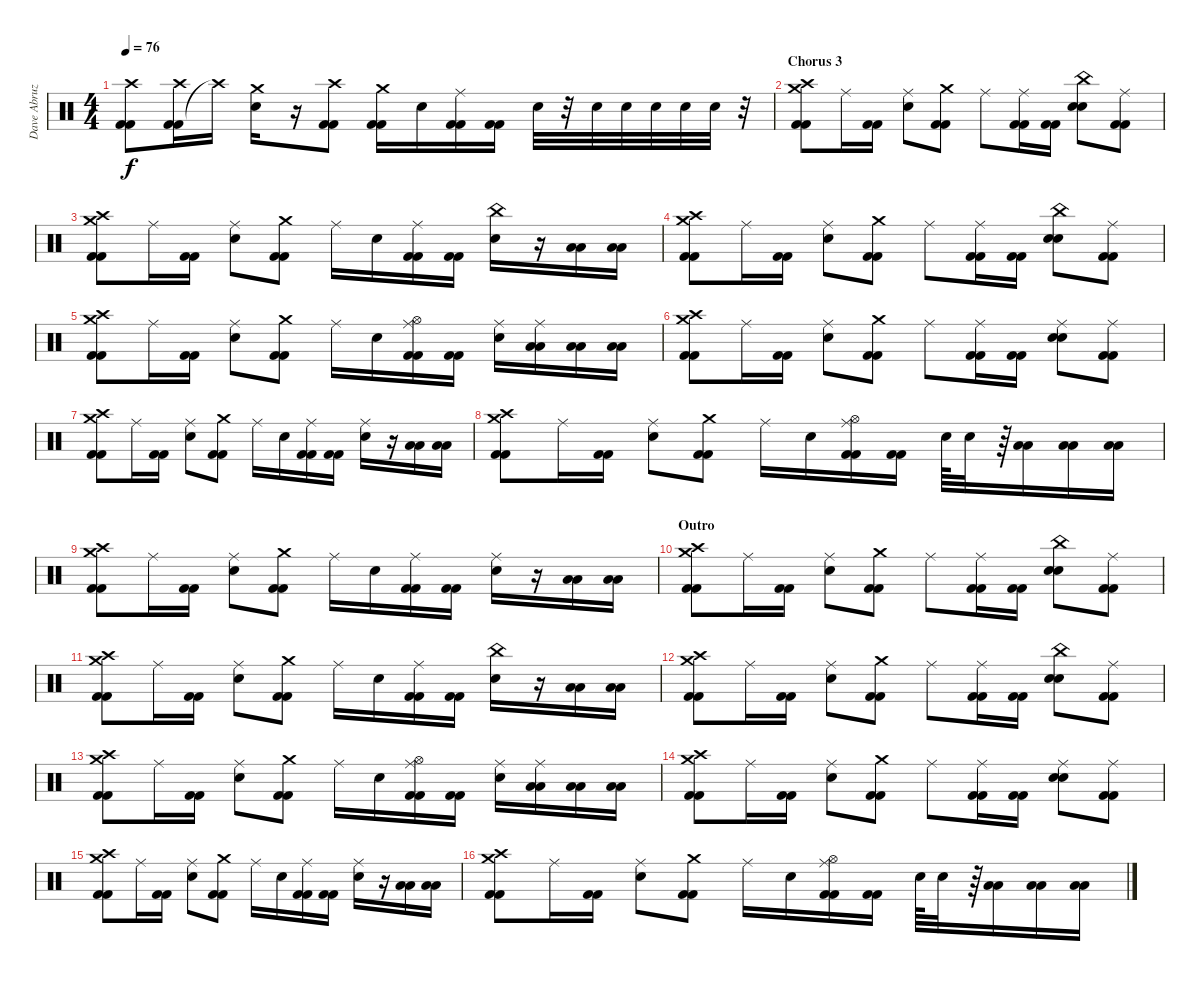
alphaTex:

\track ("Dave Abruzzese" "Dave Abruz") {instrument percussion}
\staff {score}
\articulation defaults
\ts (4 4)
\tempo 76
\clef neutral
\ks c
("Kick (hit) 2" "Kick (hit) 2" "Crash high (hit)").8{dy f} ("Kick (hit) 2" "Kick (hit) 2" "Crash high (hit)").16 "Crash high (hit)"{t}.16 ("Electric Snare (hit)" "Crash medium (hit)").16 r.16 ("Kick (hit) 2" "Kick (hit) 2" "Crash high (hit)").8 ("Kick (hit) 2" "Kick (hit) 2" "Crash medium (hit)").16 "Electric Snare (hit)".16 ("Kick (hit) 2" "Kick (hit) 2" "Ride (middle)").16 ("Kick (hit) 2" "Kick (hit) 2").16 "Electric Snare (hit)".32 r.32 "Electric Snare (hit)".32 "Electric Snare (hit)".32 "Electric Snare (hit)".32 "Electric Snare (hit)".32 "Electric Snare (hit)".32 r.32 |
\section ("" "Chorus 3")
("Crash medium (hit)" "Kick (hit) 2" "Kick (hit) 2" "Crash high (hit)").8 "Ride (middle)".16 ("Kick (hit) 2" "Kick (hit) 2").16 ("Electric Snare (hit)" "Ride (middle)").8 ("Kick (hit) 2" "Kick (hit) 2" "Crash medium (hit)").8 "Ride (middle)".8 ("Kick (hit) 2" "Kick (hit) 2" "Ride (middle)").16 ("Kick (hit) 2" "Kick (hit) 2").16 ("Electric Snare (hit)" "Electric Snare (hit)" "China (hit)").8 ("Kick (hit) 2" "Kick (hit) 2" "Ride (middle)").8 |
("Crash medium (hit)" "Kick (hit) 2" "Kick (hit) 2" "Crash high (hit)").8 "Ride (middle)".16 ("Kick (hit) 2" "Kick (hit) 2").16 ("Electric Snare (hit)" "Ride (middle)").8 ("Kick (hit) 2" "Kick (hit) 2" "Crash medium (hit)").8 "Ride (middle)".16 "Electric Snare (hit)".16 ("Kick (hit) 2" "Kick (hit) 2" "Ride (middle)").16 ("Kick (hit) 2" "Kick (hit) 2").16 ("Electric Snare (hit)" "China (hit)").16 r.16 ("Low Tom (hit)" "Low Tom (hit)").16 ("Low Tom (hit)" "Low Tom (hit)").16 |
("Crash medium (hit)" "Kick (hit) 2" "Kick (hit) 2" "Crash high (hit)").8 "Ride (middle)".16 ("Kick (hit) 2" "Kick (hit) 2").16 ("Electric Snare (hit)" "Ride (middle)").8 ("Kick (hit) 2" "Kick (hit) 2" "Crash medium (hit)").8 "Ride (middle)".8 ("Kick (hit) 2" "Kick (hit) 2" "Ride (middle)").16 ("Kick (hit) 2" "Kick (hit) 2").16 ("Electric Snare (hit)" "Electric Snare (hit)" "China (hit)").8 ("Kick (hit) 2" "Kick (hit) 2" "Ride (middle)").8 |
("Crash medium (hit)" "Kick (hit) 2" "Kick (hit) 2" "Crash high (hit)").8 "Ride (middle)".16 ("Kick (hit) 2" "Kick (hit) 2").16 ("Electric Snare (hit)" "Ride (middle)").8 ("Kick (hit) 2" "Kick (hit) 2" "Crash medium (hit)").8 "Ride (middle)".16 "Electric Snare (hit)".16 ("Hi-Hat (open)" "Kick (hit) 2" "Kick (hit) 2" "Ride (middle)").16 ("Kick (hit) 2" "Kick (hit) 2").16 ("Electric Snare (hit)" "Ride (middle)").16 ("Low Tom (hit)" "Low Tom (hit)" "Ride (middle)").16 ("Low Tom (hit)" "Low Tom (hit)").16 ("Low Tom (hit)" "Low Tom (hit)").16 |
("Crash medium (hit)" "Kick (hit) 2" "Kick (hit) 2" "Crash high (hit)").8 "Ride (middle)".16 ("Kick (hit) 2" "Kick (hit) 2").16 ("Electric Snare (hit)" "Ride (middle)").8 ("Kick (hit) 2" "Kick (hit) 2" "Crash medium (hit)").8 "Ride (middle)".8 ("Kick (hit) 2" "Kick (hit) 2" "Ride (middle)").16 ("Kick (hit) 2" "Kick (hit) 2").16 ("Electric Snare (hit)" "Electric Snare (hit)" "Ride (middle)").8 ("Kick (hit) 2" "Kick (hit) 2" "Ride (middle)").8 |
("Crash medium (hit)" "Kick (hit) 2" "Kick (hit) 2" "Crash high (hit)").8 "Ride (middle)".16 ("Kick (hit) 2" "Kick (hit) 2").16 ("Electric Snare (hit)" "Ride (middle)").8 ("Kick (hit) 2" "Kick (hit) 2" "Crash medium (hit)").8 "Ride (middle)".16 "Electric Snare (hit)".16 ("Kick (hit) 2" "Kick (hit) 2" "Ride (middle)").16 ("Kick (hit) 2" "Kick (hit) 2").16 ("Electric Snare (hit)" "Ride (middle)").16 r.16 ("Low Tom (hit)" "Low Tom (hit)").16 ("Low Tom (hit)" "Low Tom (hit)").16 |
("Crash medium (hit)" "Kick (hit) 2" "Kick (hit) 2" "Crash high (hit)").8 "Ride (middle)".16 ("Kick (hit) 2" "Kick (hit) 2").16 ("Electric Snare (hit)" "Ride (middle)").8 ("Kick (hit) 2" "Kick (hit) 2" "Crash medium (hit)").8 "Ride (middle)".16 "Electric Snare (hit)".16 ("Hi-Hat (open)" "Kick (hit) 2" "Kick (hit) 2" "Ride (middle)").16 ("Kick (hit) 2" "Kick (hit) 2").16 "Electric Snare (hit)".64 "Electric Snare (hit)".32 r.64 ("Low Tom (hit)" "Low Tom (hit)").16 ("Low Tom (hit)" "Low Tom (hit)").16 ("Low Tom (hit)" "Low Tom (hit)").16 |
("Crash medium (hit)" "Kick (hit) 2" "Kick (hit) 2" "Crash high (hit)").8 "Ride (middle)".16 ("Kick (hit) 2" "Kick (hit) 2").16 ("Electric Snare (hit)" "Ride (middle)").8 ("Kick (hit) 2" "Kick (hit) 2" "Crash medium (hit)").8 "Ride (middle)".16 "Electric Snare (hit)".16 ("Kick (hit) 2" "Kick (hit) 2" "Ride (middle)").16 ("Kick (hit) 2" "Kick (hit) 2").16 ("Electric Snare (hit)" "Ride (middle)").16 r.16 ("Low Tom (hit)" "Low Tom (hit)").16 ("Low Tom (hit)" "Low Tom (hit)").16 |
\section ("" "Outro")
("Crash medium (hit)" "Kick (hit) 2" "Kick (hit) 2" "Crash high (hit)").8 "Ride (middle)".16 ("Kick (hit) 2" "Kick (hit) 2").16 ("Electric Snare (hit)" "Ride (middle)").8 ("Kick (hit) 2" "Kick (hit) 2" "Crash medium (hit)").8 "Ride (middle)".8 ("Kick (hit) 2" "Kick (hit) 2" "Ride (middle)").16 ("Kick (hit) 2" "Kick (hit) 2").16 ("Electric Snare (hit)" "Electric Snare (hit)" "China (hit)").8 ("Kick (hit) 2" "Kick (hit) 2" "Ride (middle)").8 |
("Crash medium (hit)" "Kick (hit) 2" "Kick (hit) 2" "Crash high (hit)").8 "Ride (middle)".16 ("Kick (hit) 2" "Kick (hit) 2").16 ("Electric Snare (hit)" "Ride (middle)").8 ("Kick (hit) 2" "Kick (hit) 2" "Crash medium (hit)").8 "Ride (middle)".16 "Electric Snare (hit)".16 ("Kick (hit) 2" "Kick (hit) 2" "Ride (middle)").16 ("Kick (hit) 2" "Kick (hit) 2").16 ("Electric Snare (hit)" "China (hit)").16 r.16 ("Low Tom (hit)" "Low Tom (hit)").16 ("Low Tom (hit)" "Low Tom (hit)").16 |
("Crash medium (hit)" "Kick (hit) 2" "Kick (hit) 2" "Crash high (hit)").8 "Ride (middle)".16 ("Kick (hit) 2" "Kick (hit) 2").16 ("Electric Snare (hit)" "Ride (middle)").8 ("Kick (hit) 2" "Kick (hit) 2" "Crash medium (hit)").8 "Ride (middle)".8 ("Kick (hit) 2" "Kick (hit) 2" "Ride (middle)").16 ("Kick (hit) 2" "Kick (hit) 2").16 ("Electric Snare (hit)" "Electric Snare (hit)" "China (hit)").8 ("Kick (hit) 2" "Kick (hit) 2" "Ride (middle)").8 |
("Crash medium (hit)" "Kick (hit) 2" "Kick (hit) 2" "Crash high (hit)").8 "Ride (middle)".16 ("Kick (hit) 2" "Kick (hit) 2").16 ("Electric Snare (hit)" "Ride (middle)").8 ("Kick (hit) 2" "Kick (hit) 2" "Crash medium (hit)").8 "Ride (middle)".16 "Electric Snare (hit)".16 ("Hi-Hat (open)" "Kick (hit) 2" "Kick (hit) 2" "Ride (middle)").16 ("Kick (hit) 2" "Kick (hit) 2").16 ("Electric Snare (hit)" "Ride (middle)").16 ("Low Tom (hit)" "Low Tom (hit)" "Ride (middle)").16 ("Low Tom (hit)" "Low Tom (hit)").16 ("Low Tom (hit)" "Low Tom (hit)").16 |
("Crash medium (hit)" "Kick (hit) 2" "Kick (hit) 2" "Crash high (hit)").8 "Ride (middle)".16 ("Kick (hit) 2" "Kick (hit) 2").16 ("Electric Snare (hit)" "Ride (middle)").8 ("Kick (hit) 2" "Kick (hit) 2" "Crash medium (hit)").8 "Ride (middle)".8 ("Kick (hit) 2" "Kick (hit) 2" "Ride (middle)").16 ("Kick (hit) 2" "Kick (hit) 2").16 ("Electric Snare (hit)" "Electric Snare (hit)" "Ride (middle)").8 ("Kick (hit) 2" "Kick (hit) 2" "Ride (middle)").8 |
("Crash medium (hit)" "Kick (hit) 2" "Kick (hit) 2" "Crash high (hit)").8 "Ride (middle)".16 ("Kick (hit) 2" "Kick (hit) 2").16 ("Electric Snare (hit)" "Ride (middle)").8 ("Kick (hit) 2" "Kick (hit) 2" "Crash medium (hit)").8 "Ride (middle)".16 "Electric Snare (hit)".16 ("Kick (hit) 2" "Kick (hit) 2" "Ride (middle)").16 ("Kick (hit) 2" "Kick (hit) 2").16 ("Electric Snare (hit)" "Ride (middle)").16 r.16 ("Low Tom (hit)" "Low Tom (hit)").16 ("Low Tom (hit)" "Low Tom (hit)").16 |
("Crash medium (hit)" "Kick (hit) 2" "Kick (hit) 2" "Crash high (hit)").8 "Ride (middle)".16 ("Kick (hit) 2" "Kick (hit) 2").16 ("Electric Snare (hit)" "Ride (middle)").8 ("Kick (hit) 2" "Kick (hit) 2" "Crash medium (hit)").8 "Ride (middle)".16 "Electric Snare (hit)".16 ("Hi-Hat (open)" "Kick (hit) 2" "Kick (hit) 2" "Ride (middle)").16 ("Kick (hit) 2" "Kick (hit) 2").16 "Electric Snare (hit)".64 "Electric Snare (hit)".32 r.64 ("Low Tom (hit)" "Low Tom (hit)").16 ("Low Tom (hit)" "Low Tom (hit)").16 ("Low Tom (hit)" "Low Tom (hit)").16
